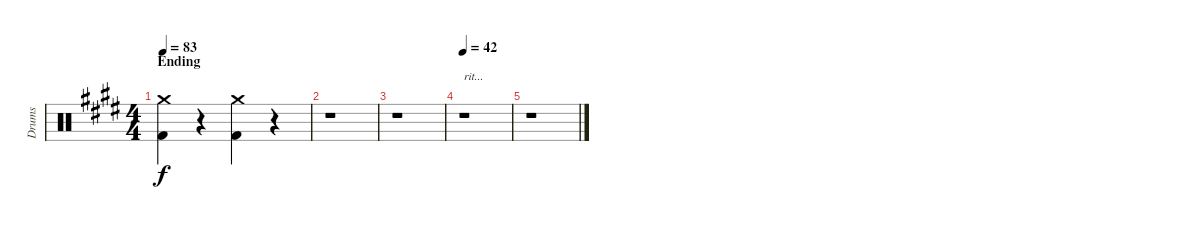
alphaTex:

\track ("Drums" "Drums") {instrument percussion}
\staff {score}
\articulation defaults
\ts (4 4)
\section ("" "Ending")
\tempo 83
\clef neutral
\ks e
("Crash medium (hit)" "Kick (hit) 2").4{dy f} r.4 ("Crash medium (hit)" "Kick (hit) 2").4 r.4 |
r.1 |
r.1 |
\tempo 42
r.1{txt "rit..."} |
r.1
